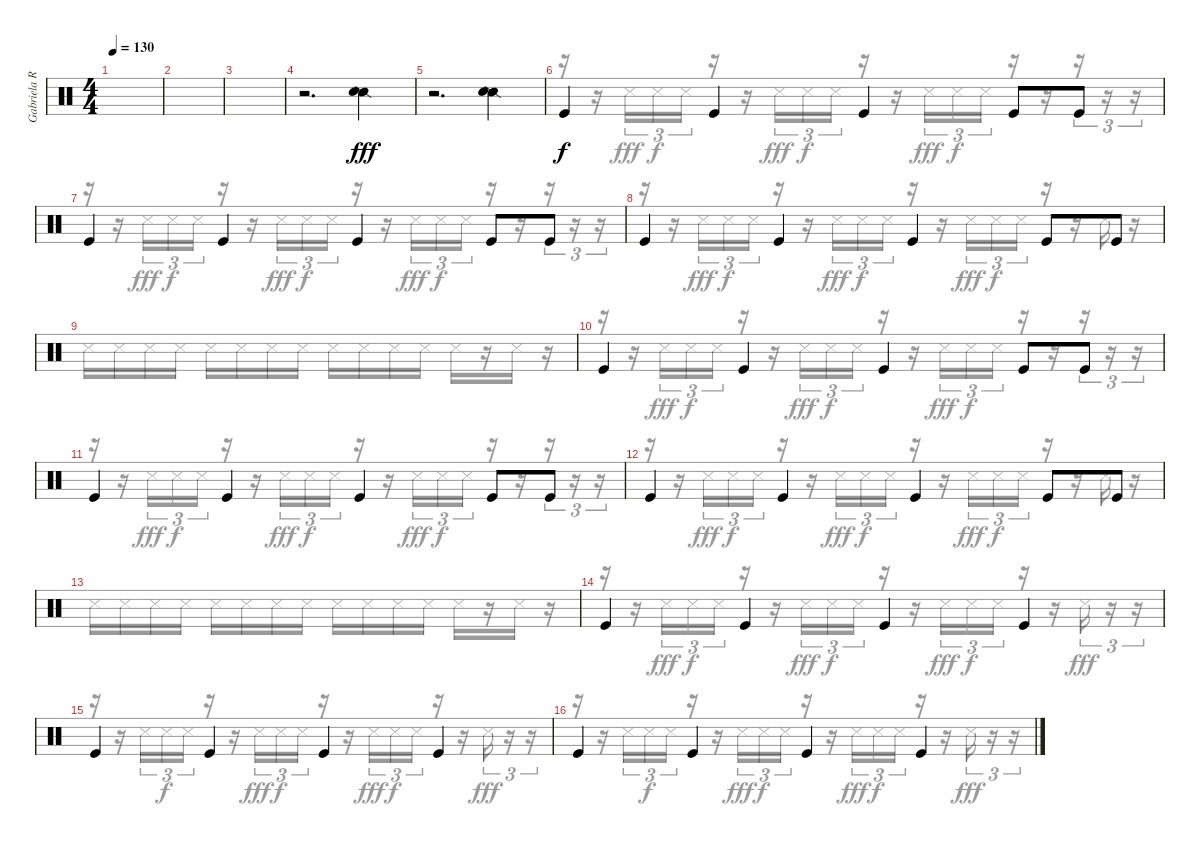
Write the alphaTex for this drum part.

\track ("Gabriela Rythmics" "Gabriela R") {instrument percussion}
\staff {score}
\articulation defaults
\voice
\ts (4 4)
\tempo 130
\clef neutral
\ks c
|
|
|
r.2{d} ("Snare (side stick) 2" "Electric Snare (hit)").4{dy fff} |
r.2{d} ("Snare (side stick) 2" "Electric Snare (hit)").4 |
"Kick (hit)".4{dy f} "Kick (hit)".4 "Kick (hit)".4 "Kick (hit)".8 "Kick (hit)".8 |
"Kick (hit)".4 "Kick (hit)".4 "Kick (hit)".4 "Kick (hit)".8 "Kick (hit)".8 |
"Kick (hit)".4 "Kick (hit)".4 "Kick (hit)".4 "Kick (hit)".8 "Kick (hit)".8 |
|
"Kick (hit)".4 "Kick (hit)".4 "Kick (hit)".4 "Kick (hit)".8 "Kick (hit)".8 |
"Kick (hit)".4 "Kick (hit)".4 "Kick (hit)".4 "Kick (hit)".8 "Kick (hit)".8 |
"Kick (hit)".4 "Kick (hit)".4 "Kick (hit)".4 "Kick (hit)".8 "Kick (hit)".8 |
|
"Kick (hit)".4 "Kick (hit)".4 "Kick (hit)".4 "Kick (hit)".4 |
"Kick (hit)".4 "Kick (hit)".4 "Kick (hit)".4 "Kick (hit)".4 |
"Kick (hit)".4 "Kick (hit)".4 "Kick (hit)".4 "Kick (hit)".4
\voice
\clef neutral
\ottava regular
\simile none
\ks c
|
|
|
|
|
r.16 r.16 "Snare (side stick) 3".16{tu (3 2) dy fff} "Snare (side stick) 3".16{tu (3 2) dy f} "Snare (side stick) 3".16{tu (3 2)} r.16 r.16 "Snare (side stick) 3".16{tu (3 2) dy fff} "Snare (side stick) 3".16{tu (3 2) dy f} "Snare (side stick) 3".16{tu (3 2)} r.16 r.16 "Snare (side stick) 3".16{tu (3 2) dy fff} "Snare (side stick) 3".16{tu (3 2) dy f} "Snare (side stick) 3".16{tu (3 2)} r.16 r.16 r.16{tu (3 2)} r.16{tu (3 2)} r.16{tu (3 2)} |
r.16 r.16 "Snare (side stick) 3".16{tu (3 2) dy fff} "Snare (side stick) 3".16{tu (3 2) dy f} "Snare (side stick) 3".16{tu (3 2)} r.16 r.16 "Snare (side stick) 3".16{tu (3 2) dy fff} "Snare (side stick) 3".16{tu (3 2) dy f} "Snare (side stick) 3".16{tu (3 2)} r.16 r.16 "Snare (side stick) 3".16{tu (3 2) dy fff} "Snare (side stick) 3".16{tu (3 2) dy f} "Snare (side stick) 3".16{tu (3 2)} r.16 r.16 r.16{tu (3 2)} r.16{tu (3 2)} r.16{tu (3 2)} |
r.16 r.16 "Snare (side stick) 3".16{tu (3 2) dy fff} "Snare (side stick) 3".16{tu (3 2) dy f} "Snare (side stick) 3".16{tu (3 2)} r.16 r.16 "Snare (side stick) 3".16{tu (3 2) dy fff} "Snare (side stick) 3".16{tu (3 2) dy f} "Snare (side stick) 3".16{tu (3 2)} r.16 r.16 "Snare (side stick) 3".16{tu (3 2) dy fff} "Snare (side stick) 3".16{tu (3 2) dy f} "Snare (side stick) 3".16{tu (3 2)} r.16 r.16 "Snare (side stick) 3".16 r.16 |
"Snare (side stick) 3".16 "Snare (side stick) 3".16 "Snare (side stick) 3".16 "Snare (side stick) 3".16 "Snare (side stick) 3".16 "Snare (side stick) 3".16 "Snare (side stick) 3".16 "Snare (side stick) 3".16 "Snare (side stick) 3".16 "Snare (side stick) 3".16 "Snare (side stick) 3".16 "Snare (side stick) 3".16 "Snare (side stick) 3".16 r.16 "Snare (side stick) 3".16 r.16 |
r.16 r.16 "Snare (side stick) 3".16{tu (3 2) dy fff} "Snare (side stick) 3".16{tu (3 2) dy f} "Snare (side stick) 3".16{tu (3 2)} r.16 r.16 "Snare (side stick) 3".16{tu (3 2) dy fff} "Snare (side stick) 3".16{tu (3 2) dy f} "Snare (side stick) 3".16{tu (3 2)} r.16 r.16 "Snare (side stick) 3".16{tu (3 2) dy fff} "Snare (side stick) 3".16{tu (3 2) dy f} "Snare (side stick) 3".16{tu (3 2)} r.16 r.16 r.16{tu (3 2)} r.16{tu (3 2)} r.16{tu (3 2)} |
r.16 r.16 "Snare (side stick) 3".16{tu (3 2) dy fff} "Snare (side stick) 3".16{tu (3 2) dy f} "Snare (side stick) 3".16{tu (3 2)} r.16 r.16 "Snare (side stick) 3".16{tu (3 2) dy fff} "Snare (side stick) 3".16{tu (3 2) dy f} "Snare (side stick) 3".16{tu (3 2)} r.16 r.16 "Snare (side stick) 3".16{tu (3 2) dy fff} "Snare (side stick) 3".16{tu (3 2) dy f} "Snare (side stick) 3".16{tu (3 2)} r.16 r.16 r.16{tu (3 2)} r.16{tu (3 2)} r.16{tu (3 2)} |
r.16 r.16 "Snare (side stick) 3".16{tu (3 2) dy fff} "Snare (side stick) 3".16{tu (3 2) dy f} "Snare (side stick) 3".16{tu (3 2)} r.16 r.16 "Snare (side stick) 3".16{tu (3 2) dy fff} "Snare (side stick) 3".16{tu (3 2) dy f} "Snare (side stick) 3".16{tu (3 2)} r.16 r.16 "Snare (side stick) 3".16{tu (3 2) dy fff} "Snare (side stick) 3".16{tu (3 2) dy f} "Snare (side stick) 3".16{tu (3 2)} r.16 r.16 "Snare (side stick) 3".16 r.16 |
"Snare (side stick) 3".16 "Snare (side stick) 3".16 "Snare (side stick) 3".16 "Snare (side stick) 3".16 "Snare (side stick) 3".16 "Snare (side stick) 3".16 "Snare (side stick) 3".16 "Snare (side stick) 3".16 "Snare (side stick) 3".16 "Snare (side stick) 3".16 "Snare (side stick) 3".16 "Snare (side stick) 3".16 "Snare (side stick) 3".16 r.16 "Snare (side stick) 3".16 r.16 |
r.16 r.16 "Snare (side stick) 3".16{tu (3 2) dy fff} "Snare (side stick) 3".16{tu (3 2) dy f} "Snare (side stick) 3".16{tu (3 2)} r.16 r.16 "Snare (side stick) 3".16{tu (3 2) dy fff} "Snare (side stick) 3".16{tu (3 2) dy f} "Snare (side stick) 3".16{tu (3 2)} r.16 r.16 "Snare (side stick) 3".16{tu (3 2) dy fff} "Snare (side stick) 3".16{tu (3 2) dy f} "Snare (side stick) 3".16{tu (3 2)} r.16 r.16 "Snare (side stick) 3".16{tu (3 2) dy fff} r.16{tu (3 2)} r.16{tu (3 2)} |
r.16 r.16 "Snare (side stick) 3".16{tu (3 2)} "Snare (side stick) 3".16{tu (3 2) dy f} "Snare (side stick) 3".16{tu (3 2)} r.16 r.16 "Snare (side stick) 3".16{tu (3 2) dy fff} "Snare (side stick) 3".16{tu (3 2) dy f} "Snare (side stick) 3".16{tu (3 2)} r.16 r.16 "Snare (side stick) 3".16{tu (3 2) dy fff} "Snare (side stick) 3".16{tu (3 2) dy f} "Snare (side stick) 3".16{tu (3 2)} r.16 r.16 "Snare (side stick) 3".16{tu (3 2) dy fff} r.16{tu (3 2)} r.16{tu (3 2)} |
r.16 r.16 "Snare (side stick) 3".16{tu (3 2)} "Snare (side stick) 3".16{tu (3 2) dy f} "Snare (side stick) 3".16{tu (3 2)} r.16 r.16 "Snare (side stick) 3".16{tu (3 2) dy fff} "Snare (side stick) 3".16{tu (3 2) dy f} "Snare (side stick) 3".16{tu (3 2)} r.16 r.16 "Snare (side stick) 3".16{tu (3 2) dy fff} "Snare (side stick) 3".16{tu (3 2) dy f} "Snare (side stick) 3".16{tu (3 2)} r.16 r.16 "Snare (side stick) 3".16{tu (3 2) dy fff} r.16{tu (3 2)} r.16{tu (3 2)}
